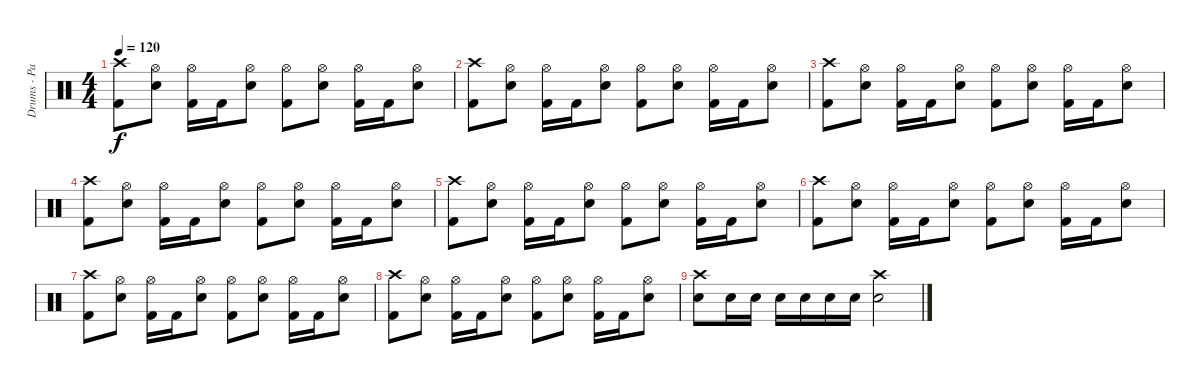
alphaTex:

\track ("Drums - Pat Thetic" "Drums - Pa") {instrument percussion}
\staff {score}
\articulation defaults
\ts (4 4)
\tempo 120
\clef neutral
\ks c
("Crash high (hit)" "Kick (hit) 2").8{dy f} ("Hi-Hat (open)" "Electric Snare (hit)").8 ("Hi-Hat (open)" "Kick (hit) 2").16 "Kick (hit) 2".16 ("Hi-Hat (open)" "Electric Snare (hit)").8 ("Hi-Hat (open)" "Kick (hit) 2").8 ("Hi-Hat (open)" "Electric Snare (hit)").8 ("Hi-Hat (open)" "Kick (hit) 2").16 "Kick (hit) 2".16 ("Hi-Hat (open)" "Electric Snare (hit)").8 |
("Crash high (hit)" "Kick (hit) 2").8 ("Hi-Hat (open)" "Electric Snare (hit)").8 ("Hi-Hat (open)" "Kick (hit) 2").16 "Kick (hit) 2".16 ("Hi-Hat (open)" "Electric Snare (hit)").8 ("Hi-Hat (open)" "Kick (hit) 2").8 ("Hi-Hat (open)" "Electric Snare (hit)").8 ("Hi-Hat (open)" "Kick (hit) 2").16 "Kick (hit) 2".16 ("Hi-Hat (open)" "Electric Snare (hit)").8 |
("Crash high (hit)" "Kick (hit) 2").8 ("Hi-Hat (open)" "Electric Snare (hit)").8 ("Hi-Hat (open)" "Kick (hit) 2").16 "Kick (hit) 2".16 ("Hi-Hat (open)" "Electric Snare (hit)").8 ("Hi-Hat (open)" "Kick (hit) 2").8 ("Hi-Hat (open)" "Electric Snare (hit)").8 ("Hi-Hat (open)" "Kick (hit) 2").16 "Kick (hit) 2".16 ("Hi-Hat (open)" "Electric Snare (hit)").8 |
("Crash high (hit)" "Kick (hit) 2").8 ("Hi-Hat (open)" "Electric Snare (hit)").8 ("Hi-Hat (open)" "Kick (hit) 2").16 "Kick (hit) 2".16 ("Hi-Hat (open)" "Electric Snare (hit)").8 ("Hi-Hat (open)" "Kick (hit) 2").8 ("Hi-Hat (open)" "Electric Snare (hit)").8 ("Hi-Hat (open)" "Kick (hit) 2").16 "Kick (hit) 2".16 ("Hi-Hat (open)" "Electric Snare (hit)").8 |
("Crash high (hit)" "Kick (hit) 2").8 ("Hi-Hat (open)" "Electric Snare (hit)").8 ("Hi-Hat (open)" "Kick (hit) 2").16 "Kick (hit) 2".16 ("Hi-Hat (open)" "Electric Snare (hit)").8 ("Hi-Hat (open)" "Kick (hit) 2").8 ("Hi-Hat (open)" "Electric Snare (hit)").8 ("Hi-Hat (open)" "Kick (hit) 2").16 "Kick (hit) 2".16 ("Hi-Hat (open)" "Electric Snare (hit)").8 |
("Crash high (hit)" "Kick (hit) 2").8 ("Hi-Hat (open)" "Electric Snare (hit)").8 ("Hi-Hat (open)" "Kick (hit) 2").16 "Kick (hit) 2".16 ("Hi-Hat (open)" "Electric Snare (hit)").8 ("Hi-Hat (open)" "Kick (hit) 2").8 ("Hi-Hat (open)" "Electric Snare (hit)").8 ("Hi-Hat (open)" "Kick (hit) 2").16 "Kick (hit) 2".16 ("Hi-Hat (open)" "Electric Snare (hit)").8 |
("Crash high (hit)" "Kick (hit) 2").8 ("Hi-Hat (open)" "Electric Snare (hit)").8 ("Hi-Hat (open)" "Kick (hit) 2").16 "Kick (hit) 2".16 ("Hi-Hat (open)" "Electric Snare (hit)").8 ("Hi-Hat (open)" "Kick (hit) 2").8 ("Hi-Hat (open)" "Electric Snare (hit)").8 ("Hi-Hat (open)" "Kick (hit) 2").16 "Kick (hit) 2".16 ("Hi-Hat (open)" "Electric Snare (hit)").8 |
("Crash high (hit)" "Kick (hit) 2").8 ("Hi-Hat (open)" "Electric Snare (hit)").8 ("Hi-Hat (open)" "Kick (hit) 2").16 "Kick (hit) 2".16 ("Hi-Hat (open)" "Electric Snare (hit)").8 ("Hi-Hat (open)" "Kick (hit) 2").8 ("Hi-Hat (open)" "Electric Snare (hit)").8 ("Hi-Hat (open)" "Kick (hit) 2").16 "Kick (hit) 2".16 ("Hi-Hat (open)" "Electric Snare (hit)").8 |
("Crash high (hit)" "Electric Snare (hit)").8 "Electric Snare (hit)".16 "Electric Snare (hit)".16 "Electric Snare (hit)".16 "Electric Snare (hit)".16 "Electric Snare (hit)".16 "Electric Snare (hit)".16 ("Crash high (hit)" "Electric Snare (hit)").2
